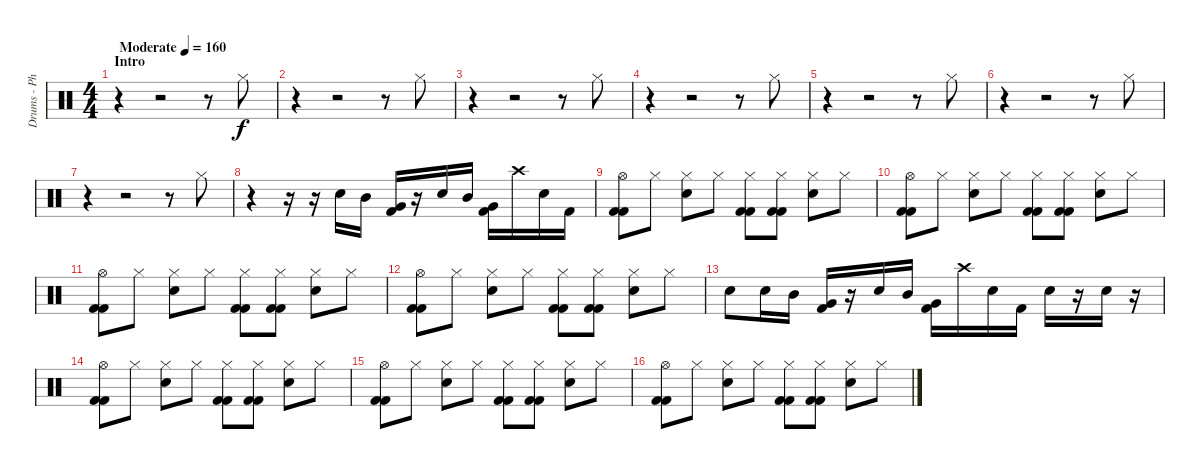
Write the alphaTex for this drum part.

\track ("Drums - Philipp Wirth" "Drums - Ph") {instrument percussion}
\staff {score}
\articulation defaults
\ts (4 4)
\section ("" "Intro")
\tempo (160 "Moderate")
\clef neutral
\ks c
r.4{dy f} r.2 r.8 "Hi-Hat (closed)".8 |
r.4 r.2 r.8 "Hi-Hat (closed)".8 |
r.4 r.2 r.8 "Hi-Hat (closed)".8 |
r.4 r.2 r.8 "Hi-Hat (closed)".8 |
r.4 r.2 r.8 "Hi-Hat (closed)".8 |
r.4 r.2 r.8 "Hi-Hat (closed)".8 |
r.4 r.2 r.8 "Hi-Hat (closed)".8 |
r.4 r.16 r.16 "Electric Snare (hit)".16 "Mid Tom (hit)".16 ("Very Low Tom (hit)" "Kick (hit) 2").16 r.16 "Electric Snare (hit)".16 "Mid Tom (hit)".16 ("Very Low Tom (hit)" "Kick (hit) 2").16 "Crash high (hit)".16 "Electric Snare (hit)".16 "Kick (hit) 2".16 |
("Hi-Hat (open)" "Kick (hit) 2" "Kick (hit) 2").8 "Hi-Hat (closed)".8 ("Hi-Hat (closed)" "Electric Snare (hit)").8 "Hi-Hat (closed)".8 ("Hi-Hat (closed)" "Kick (hit) 2" "Kick (hit) 2").8 ("Hi-Hat (closed)" "Kick (hit) 2" "Kick (hit) 2").8 ("Hi-Hat (closed)" "Electric Snare (hit)").8 "Hi-Hat (closed)".8 |
("Hi-Hat (open)" "Kick (hit) 2" "Kick (hit) 2").8 "Hi-Hat (closed)".8 ("Hi-Hat (closed)" "Electric Snare (hit)").8 "Hi-Hat (closed)".8 ("Hi-Hat (closed)" "Kick (hit) 2" "Kick (hit) 2").8 ("Hi-Hat (closed)" "Kick (hit) 2" "Kick (hit) 2").8 ("Hi-Hat (closed)" "Electric Snare (hit)").8 "Hi-Hat (closed)".8 |
("Hi-Hat (open)" "Kick (hit) 2" "Kick (hit) 2").8 "Hi-Hat (closed)".8 ("Hi-Hat (closed)" "Electric Snare (hit)").8 "Hi-Hat (closed)".8 ("Hi-Hat (closed)" "Kick (hit) 2" "Kick (hit) 2").8 ("Hi-Hat (closed)" "Kick (hit) 2" "Kick (hit) 2").8 ("Hi-Hat (closed)" "Electric Snare (hit)").8 "Hi-Hat (closed)".8 |
("Hi-Hat (open)" "Kick (hit) 2" "Kick (hit) 2").8 "Hi-Hat (closed)".8 ("Hi-Hat (closed)" "Electric Snare (hit)").8 "Hi-Hat (closed)".8 ("Hi-Hat (closed)" "Kick (hit) 2" "Kick (hit) 2").8 ("Hi-Hat (closed)" "Kick (hit) 2" "Kick (hit) 2").8 ("Hi-Hat (closed)" "Electric Snare (hit)").8 "Hi-Hat (closed)".8 |
"Electric Snare (hit)".8 "Electric Snare (hit)".16 "Mid Tom (hit)".16 ("Very Low Tom (hit)" "Kick (hit) 2").16 r.16 "Electric Snare (hit)".16 "Mid Tom (hit)".16 ("Very Low Tom (hit)" "Kick (hit) 2").16 "Crash high (hit)".16 "Electric Snare (hit)".16 "Kick (hit) 2".16 "Electric Snare (hit)".16 r.16 "Electric Snare (hit)".16 r.16 |
("Hi-Hat (open)" "Kick (hit) 2" "Kick (hit) 2").8 "Hi-Hat (closed)".8 ("Hi-Hat (closed)" "Electric Snare (hit)").8 "Hi-Hat (closed)".8 ("Hi-Hat (closed)" "Kick (hit) 2" "Kick (hit) 2").8 ("Hi-Hat (closed)" "Kick (hit) 2" "Kick (hit) 2").8 ("Hi-Hat (closed)" "Electric Snare (hit)").8 "Hi-Hat (closed)".8 |
("Hi-Hat (open)" "Kick (hit) 2" "Kick (hit) 2").8 "Hi-Hat (closed)".8 ("Hi-Hat (closed)" "Electric Snare (hit)").8 "Hi-Hat (closed)".8 ("Hi-Hat (closed)" "Kick (hit) 2" "Kick (hit) 2").8 ("Hi-Hat (closed)" "Kick (hit) 2" "Kick (hit) 2").8 ("Hi-Hat (closed)" "Electric Snare (hit)").8 "Hi-Hat (closed)".8 |
("Hi-Hat (open)" "Kick (hit) 2" "Kick (hit) 2").8 "Hi-Hat (closed)".8 ("Hi-Hat (closed)" "Electric Snare (hit)").8 "Hi-Hat (closed)".8 ("Hi-Hat (closed)" "Kick (hit) 2" "Kick (hit) 2").8 ("Hi-Hat (closed)" "Kick (hit) 2" "Kick (hit) 2").8 ("Hi-Hat (closed)" "Electric Snare (hit)").8 "Hi-Hat (closed)".8
